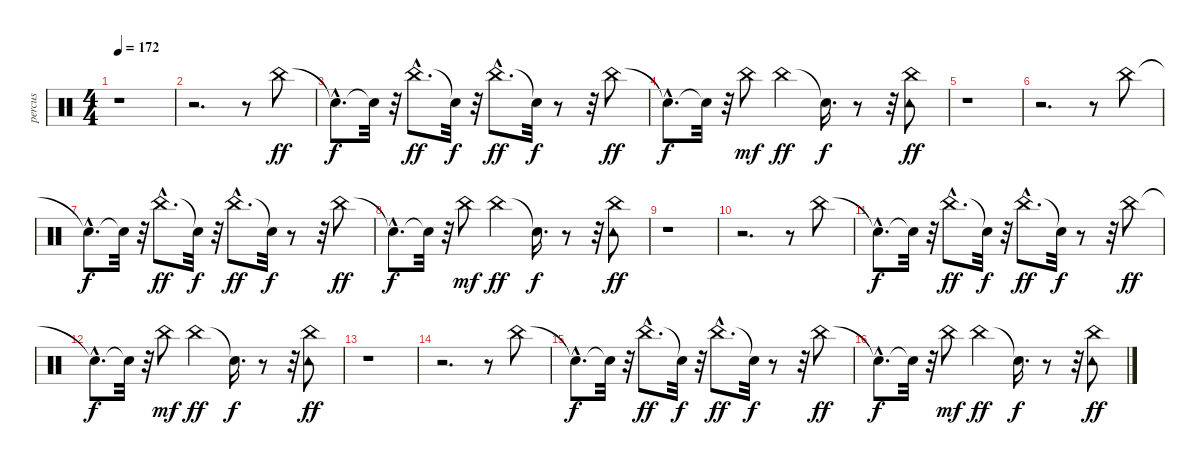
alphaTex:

\track ("percus" "percus") {instrument percussion}
\staff {score}
\articulation defaults
\ts (4 4)
\tempo 172
\clef neutral
\ks c
r.1{dy mf} |
r.2{d} r.8 "China (hit)".8{dy ff} |
"Snare (hit)"{hac t}.8{d dy f} "Snare (hit)"{t}.32 r.32 "China (hit)"{hac}.8{d dy ff} "Snare (hit)"{t}.32{dy f} r.32 "China (hit)"{hac}.8{d dy ff} "Snare (hit)"{t}.32{dy f} r.8 r.32 "China (hit)".8{dy ff} |
"Snare (hit)"{hac t}.8{d dy f} "Snare (hit)"{t}.32 r.32 "China (hit)".8{dy mf} "China (hit)".4{dy ff} "Snare (hit)"{t}.16{d dy f} r.8 r.32 ("China (hit)" "Tambourine (hit)").8{dy ff} |
r.1 |
r.2{d} r.8 "China (hit)".8 |
"Snare (hit)"{hac t}.8{d dy f} "Snare (hit)"{t}.32 r.32 "China (hit)"{hac}.8{d dy ff} "Snare (hit)"{t}.32{dy f} r.32 "China (hit)"{hac}.8{d dy ff} "Snare (hit)"{t}.32{dy f} r.8 r.32 "China (hit)".8{dy ff} |
"Snare (hit)"{hac t}.8{d dy f} "Snare (hit)"{t}.32 r.32 "China (hit)".8{dy mf} "China (hit)".4{dy ff} "Snare (hit)"{t}.16{d dy f} r.8 r.32 ("China (hit)" "Tambourine (hit)").8{dy ff} |
r.1 |
r.2{d} r.8 "China (hit)".8 |
"Snare (hit)"{hac t}.8{d dy f} "Snare (hit)"{t}.32 r.32 "China (hit)"{hac}.8{d dy ff} "Snare (hit)"{t}.32{dy f} r.32 "China (hit)"{hac}.8{d dy ff} "Snare (hit)"{t}.32{dy f} r.8 r.32 "China (hit)".8{dy ff} |
"Snare (hit)"{hac t}.8{d dy f} "Snare (hit)"{t}.32 r.32 "China (hit)".8{dy mf} "China (hit)".4{dy ff} "Snare (hit)"{t}.16{d dy f} r.8 r.32 ("China (hit)" "Tambourine (hit)").8{dy ff} |
r.1 |
r.2{d} r.8 "China (hit)".8 |
"Snare (hit)"{hac t}.8{d dy f} "Snare (hit)"{t}.32 r.32 "China (hit)"{hac}.8{d dy ff} "Snare (hit)"{t}.32{dy f} r.32 "China (hit)"{hac}.8{d dy ff} "Snare (hit)"{t}.32{dy f} r.8 r.32 "China (hit)".8{dy ff} |
"Snare (hit)"{hac t}.8{d dy f} "Snare (hit)"{t}.32 r.32 "China (hit)".8{dy mf} "China (hit)".4{dy ff} "Snare (hit)"{t}.16{d dy f} r.8 r.32 ("China (hit)" "Tambourine (hit)").8{dy ff}
